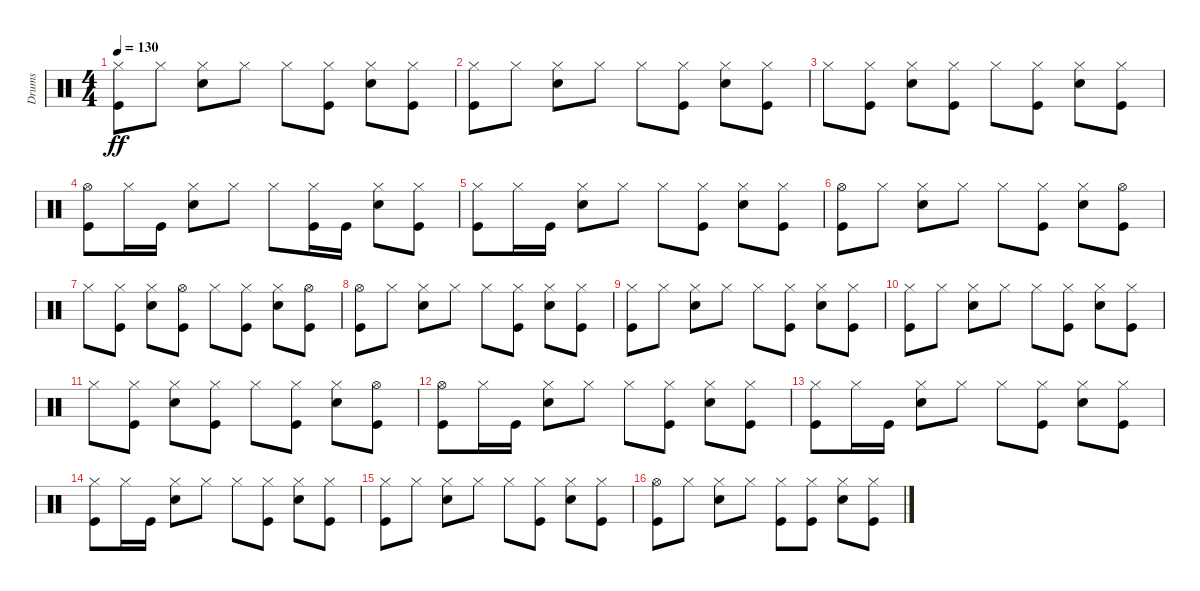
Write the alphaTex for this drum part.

\track ("Drums" "Drums") {instrument percussion}
\staff {score}
\articulation defaults
\ts (4 4)
\tempo 130
\clef neutral
\ks c
("Kick (hit)" "Hi-Hat (closed)").8{dy ff} "Hi-Hat (closed)".8 ("Snare (hit) 2" "Hi-Hat (closed)").8 "Hi-Hat (closed)".8 "Hi-Hat (closed)".8 ("Kick (hit)" "Hi-Hat (closed)").8 ("Snare (hit) 2" "Hi-Hat (closed)").8 ("Kick (hit)" "Hi-Hat (closed)").8 |
("Kick (hit)" "Hi-Hat (closed)").8 "Hi-Hat (closed)".8 ("Snare (hit) 2" "Hi-Hat (closed)").8 "Hi-Hat (closed)".8 "Hi-Hat (closed)".8 ("Kick (hit)" "Hi-Hat (closed)").8 ("Snare (hit) 2" "Hi-Hat (closed)").8 ("Kick (hit)" "Hi-Hat (closed)").8 |
"Hi-Hat (closed)".8 ("Kick (hit)" "Hi-Hat (closed)").8 ("Snare (hit) 2" "Hi-Hat (closed)").8 ("Kick (hit)" "Hi-Hat (closed)").8 "Hi-Hat (closed)".8 ("Kick (hit)" "Hi-Hat (closed)").8 ("Snare (hit) 2" "Hi-Hat (closed)").8 ("Kick (hit)" "Hi-Hat (closed)").8 |
("Kick (hit)" "Hi-Hat (open)").8 "Hi-Hat (closed)".16 "Kick (hit)".16 ("Snare (hit) 2" "Hi-Hat (closed)").8 "Hi-Hat (closed)".8 "Hi-Hat (closed)".8 ("Kick (hit)" "Hi-Hat (closed)").16 "Kick (hit)".16 ("Snare (hit) 2" "Hi-Hat (closed)").8 ("Kick (hit)" "Hi-Hat (closed)").8 |
("Kick (hit)" "Hi-Hat (closed)").8 "Hi-Hat (closed)".16 "Kick (hit)".16 ("Snare (hit) 2" "Hi-Hat (closed)").8 "Hi-Hat (closed)".8 "Hi-Hat (closed)".8 ("Kick (hit)" "Hi-Hat (closed)").8 ("Snare (hit) 2" "Hi-Hat (closed)").8 ("Kick (hit)" "Hi-Hat (closed)").8 |
("Kick (hit)" "Hi-Hat (open)").8 "Hi-Hat (closed)".8 ("Snare (hit) 2" "Hi-Hat (closed)").8 "Hi-Hat (closed)".8 "Hi-Hat (closed)".8 ("Kick (hit)" "Hi-Hat (closed)").8 ("Snare (hit) 2" "Hi-Hat (closed)").8 ("Kick (hit)" "Hi-Hat (open)").8 |
"Hi-Hat (closed)".8 ("Kick (hit)" "Hi-Hat (closed)").8 ("Snare (hit) 2" "Hi-Hat (closed)").8 ("Kick (hit)" "Hi-Hat (open)").8 "Hi-Hat (closed)".8 ("Kick (hit)" "Hi-Hat (closed)").8 ("Snare (hit) 2" "Hi-Hat (closed)").8 ("Kick (hit)" "Hi-Hat (open)").8 |
("Kick (hit)" "Hi-Hat (open)").8 "Hi-Hat (closed)".8 ("Snare (hit) 2" "Hi-Hat (closed)").8 "Hi-Hat (closed)".8 "Hi-Hat (closed)".8 ("Kick (hit)" "Hi-Hat (closed)").8 ("Snare (hit) 2" "Hi-Hat (closed)").8 ("Kick (hit)" "Hi-Hat (closed)").8 |
("Kick (hit)" "Hi-Hat (closed)").8 "Hi-Hat (closed)".8 ("Snare (hit) 2" "Hi-Hat (closed)").8 "Hi-Hat (closed)".8 "Hi-Hat (closed)".8 ("Kick (hit)" "Hi-Hat (closed)").8 ("Snare (hit) 2" "Hi-Hat (closed)").8 ("Kick (hit)" "Hi-Hat (closed)").8 |
("Kick (hit)" "Hi-Hat (closed)").8 "Hi-Hat (closed)".8 ("Snare (hit) 2" "Hi-Hat (closed)").8 "Hi-Hat (closed)".8 "Hi-Hat (closed)".8 ("Kick (hit)" "Hi-Hat (closed)").8 ("Snare (hit) 2" "Hi-Hat (closed)").8 ("Kick (hit)" "Hi-Hat (closed)").8 |
"Hi-Hat (closed)".8 ("Kick (hit)" "Hi-Hat (closed)").8 ("Snare (hit) 2" "Hi-Hat (closed)").8 ("Kick (hit)" "Hi-Hat (closed)").8 "Hi-Hat (closed)".8 ("Kick (hit)" "Hi-Hat (closed)").8 ("Snare (hit) 2" "Hi-Hat (closed)").8 ("Kick (hit)" "Hi-Hat (open)").8 |
("Kick (hit)" "Hi-Hat (open)").8 "Hi-Hat (closed)".16 "Kick (hit)".16 ("Snare (hit) 2" "Hi-Hat (closed)").8 "Hi-Hat (closed)".8 "Hi-Hat (closed)".8 ("Kick (hit)" "Hi-Hat (closed)").8 ("Snare (hit) 2" "Hi-Hat (closed)").8 ("Kick (hit)" "Hi-Hat (closed)").8 |
("Kick (hit)" "Hi-Hat (closed)").8 "Hi-Hat (closed)".16 "Kick (hit)".16 ("Snare (hit) 2" "Hi-Hat (closed)").8 "Hi-Hat (closed)".8 "Hi-Hat (closed)".8 ("Kick (hit)" "Hi-Hat (closed)").8 ("Snare (hit) 2" "Hi-Hat (closed)").8 ("Kick (hit)" "Hi-Hat (closed)").8 |
("Kick (hit)" "Hi-Hat (closed)").8 "Hi-Hat (closed)".16 "Kick (hit)".16 ("Snare (hit) 2" "Hi-Hat (closed)").8 "Hi-Hat (closed)".8 "Hi-Hat (closed)".8 ("Kick (hit)" "Hi-Hat (closed)").8 ("Snare (hit) 2" "Hi-Hat (closed)").8 ("Kick (hit)" "Hi-Hat (closed)").8 |
("Kick (hit)" "Hi-Hat (closed)").8 "Hi-Hat (closed)".8 ("Snare (hit) 2" "Hi-Hat (closed)").8 "Hi-Hat (closed)".8 "Hi-Hat (closed)".8 ("Kick (hit)" "Hi-Hat (closed)").8 ("Snare (hit) 2" "Hi-Hat (closed)").8 ("Kick (hit)" "Hi-Hat (closed)").8 |
("Kick (hit)" "Hi-Hat (open)").8 "Hi-Hat (closed)".8 ("Snare (hit) 2" "Hi-Hat (closed)").8 "Hi-Hat (closed)".8 ("Kick (hit)" "Hi-Hat (closed)").8 ("Kick (hit)" "Hi-Hat (closed)").8 ("Snare (hit) 2" "Hi-Hat (closed)").8 ("Kick (hit)" "Hi-Hat (closed)").8
